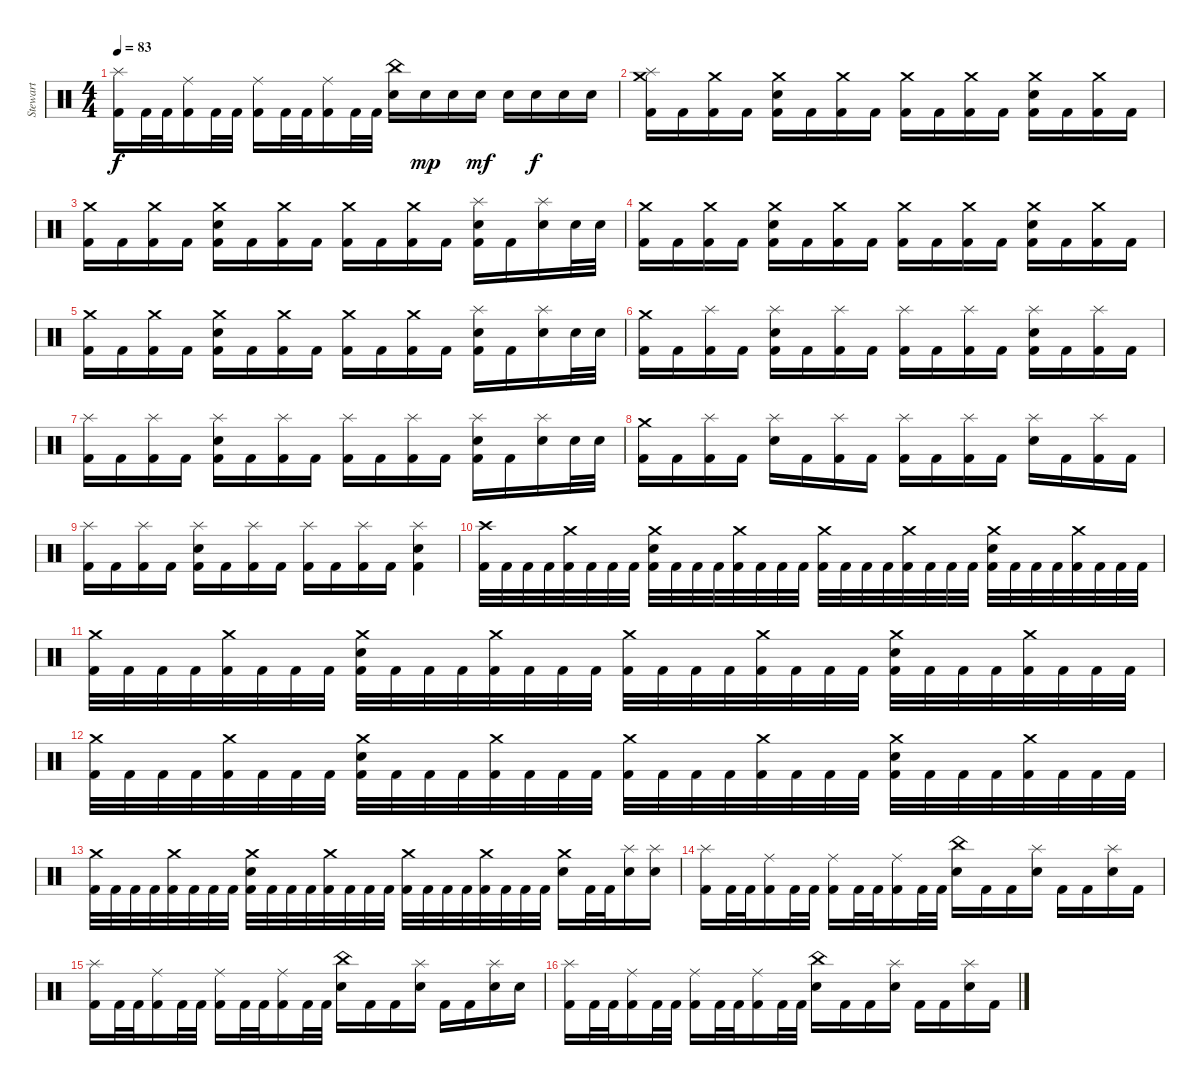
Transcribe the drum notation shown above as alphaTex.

\track ("Stewart" "Stewart") {instrument percussion}
\staff {score}
\articulation defaults
\ts (4 4)
\tempo 83
\clef neutral
\ks c
("Splash (hit)" "Kick (hit) 2").16{dy f} "Kick (hit) 2".32 "Kick (hit) 2".32 ("Ride (middle)" "Kick (hit) 2").16 "Kick (hit) 2".32 "Kick (hit) 2".32 ("Ride (middle)" "Kick (hit) 2").16 "Kick (hit) 2".32 "Kick (hit) 2".32 ("Ride (middle)" "Kick (hit) 2").16 "Kick (hit) 2".32 "Kick (hit) 2".32 ("China (hit)" "Electric Snare (hit)").16 "Electric Snare (hit)".16{dy mp} "Electric Snare (hit)".16 "Electric Snare (hit)".16{dy mf} "Electric Snare (hit)".16 "Electric Snare (hit)".16{dy f} "Electric Snare (hit)".16 "Electric Snare (hit)".16 |
("Crash medium (hit)" "Splash (hit)" "Kick (hit) 2").16 "Kick (hit) 2".16 ("Crash medium (hit)" "Kick (hit) 2").16 "Kick (hit) 2".16 ("Crash medium (hit)" "Electric Snare (hit)" "Kick (hit) 2").16 "Kick (hit) 2".16 ("Crash medium (hit)" "Kick (hit) 2").16 "Kick (hit) 2".16 ("Crash medium (hit)" "Kick (hit) 2").16 "Kick (hit) 2".16 ("Crash medium (hit)" "Kick (hit) 2").16 "Kick (hit) 2".16 ("Crash medium (hit)" "Electric Snare (hit)" "Kick (hit) 2").16 "Kick (hit) 2".16 ("Crash medium (hit)" "Kick (hit) 2").16 "Kick (hit) 2".16 |
("Crash medium (hit)" "Kick (hit) 2").16 "Kick (hit) 2".16 ("Crash medium (hit)" "Kick (hit) 2").16 "Kick (hit) 2".16 ("Crash medium (hit)" "Electric Snare (hit)" "Kick (hit) 2").16 "Kick (hit) 2".16 ("Crash medium (hit)" "Kick (hit) 2").16 "Kick (hit) 2".16 ("Crash medium (hit)" "Kick (hit) 2").16 "Kick (hit) 2".16 ("Crash medium (hit)" "Kick (hit) 2").16 "Kick (hit) 2".16 ("Splash (hit)" "Electric Snare (hit)" "Kick (hit) 2").16 "Kick (hit) 2".16 ("Splash (hit)" "Electric Snare (hit)").16 "Electric Snare (hit)".32 "Electric Snare (hit)".32 |
("Crash medium (hit)" "Kick (hit) 2").16 "Kick (hit) 2".16 ("Crash medium (hit)" "Kick (hit) 2").16 "Kick (hit) 2".16 ("Crash medium (hit)" "Electric Snare (hit)" "Kick (hit) 2").16 "Kick (hit) 2".16 ("Crash medium (hit)" "Kick (hit) 2").16 "Kick (hit) 2".16 ("Crash medium (hit)" "Kick (hit) 2").16 "Kick (hit) 2".16 ("Crash medium (hit)" "Kick (hit) 2").16 "Kick (hit) 2".16 ("Crash medium (hit)" "Electric Snare (hit)" "Kick (hit) 2").16 "Kick (hit) 2".16 ("Crash medium (hit)" "Kick (hit) 2").16 "Kick (hit) 2".16 |
("Crash medium (hit)" "Kick (hit) 2").16 "Kick (hit) 2".16 ("Crash medium (hit)" "Kick (hit) 2").16 "Kick (hit) 2".16 ("Crash medium (hit)" "Electric Snare (hit)" "Kick (hit) 2").16 "Kick (hit) 2".16 ("Crash medium (hit)" "Kick (hit) 2").16 "Kick (hit) 2".16 ("Crash medium (hit)" "Kick (hit) 2").16 "Kick (hit) 2".16 ("Crash medium (hit)" "Kick (hit) 2").16 "Kick (hit) 2".16 ("Splash (hit)" "Electric Snare (hit)" "Kick (hit) 2").16 "Kick (hit) 2".16 ("Splash (hit)" "Electric Snare (hit)").16 "Electric Snare (hit)".32 "Electric Snare (hit)".32 |
("Crash medium (hit)" "Kick (hit) 2").16 "Kick (hit) 2".16 ("Splash (hit)" "Kick (hit) 2").16 "Kick (hit) 2".16 ("Splash (hit)" "Electric Snare (hit)" "Kick (hit) 2").16 "Kick (hit) 2".16 ("Splash (hit)" "Kick (hit) 2").16 "Kick (hit) 2".16 ("Splash (hit)" "Kick (hit) 2").16 "Kick (hit) 2".16 ("Splash (hit)" "Kick (hit) 2").16 "Kick (hit) 2".16 ("Splash (hit)" "Electric Snare (hit)" "Kick (hit) 2").16 "Kick (hit) 2".16 ("Splash (hit)" "Kick (hit) 2").16 "Kick (hit) 2".16 |
("Splash (hit)" "Kick (hit) 2").16 "Kick (hit) 2".16 ("Splash (hit)" "Kick (hit) 2").16 "Kick (hit) 2".16 ("Splash (hit)" "Electric Snare (hit)" "Kick (hit) 2").16 "Kick (hit) 2".16 ("Splash (hit)" "Kick (hit) 2").16 "Kick (hit) 2".16 ("Splash (hit)" "Kick (hit) 2").16 "Kick (hit) 2".16 ("Splash (hit)" "Kick (hit) 2").16 "Kick (hit) 2".16 ("Splash (hit)" "Electric Snare (hit)" "Kick (hit) 2").16 "Kick (hit) 2".16 ("Splash (hit)" "Electric Snare (hit)").16 "Electric Snare (hit)".32 "Electric Snare (hit)".32 |
("Crash medium (hit)" "Kick (hit) 2").16 "Kick (hit) 2".16 ("Splash (hit)" "Kick (hit) 2").16 "Kick (hit) 2".16 ("Splash (hit)" "Electric Snare (hit)").16 "Kick (hit) 2".16 ("Splash (hit)" "Kick (hit) 2").16 "Kick (hit) 2".16 ("Splash (hit)" "Kick (hit) 2").16 "Kick (hit) 2".16 ("Splash (hit)" "Kick (hit) 2").16 "Kick (hit) 2".16 ("Splash (hit)" "Electric Snare (hit)").16 "Kick (hit) 2".16 ("Splash (hit)" "Kick (hit) 2").16 "Kick (hit) 2".16 |
("Splash (hit)" "Kick (hit) 2").16 "Kick (hit) 2".16 ("Splash (hit)" "Kick (hit) 2").16 "Kick (hit) 2".16 ("Splash (hit)" "Electric Snare (hit)" "Kick (hit) 2").16 "Kick (hit) 2".16 ("Splash (hit)" "Kick (hit) 2").16 "Kick (hit) 2".16 ("Splash (hit)" "Kick (hit) 2").16 "Kick (hit) 2".16 ("Splash (hit)" "Kick (hit) 2").16 "Kick (hit) 2".16 ("Splash (hit)" "Electric Snare (hit)" "Kick (hit) 2").4 |
("Crash high (hit)" "Kick (hit) 2").32 "Kick (hit) 2".32 "Kick (hit) 2".32 "Kick (hit) 2".32 ("Crash medium (hit)" "Kick (hit) 2").32 "Kick (hit) 2".32 "Kick (hit) 2".32 "Kick (hit) 2".32 ("Crash medium (hit)" "Electric Snare (hit)" "Kick (hit) 2").32 "Kick (hit) 2".32 "Kick (hit) 2".32 "Kick (hit) 2".32 ("Crash medium (hit)" "Kick (hit) 2").32 "Kick (hit) 2".32 "Kick (hit) 2".32 "Kick (hit) 2".32 ("Crash medium (hit)" "Kick (hit) 2").32 "Kick (hit) 2".32 "Kick (hit) 2".32 "Kick (hit) 2".32 ("Crash medium (hit)" "Kick (hit) 2").32 "Kick (hit) 2".32 "Kick (hit) 2".32 "Kick (hit) 2".32 ("Crash medium (hit)" "Electric Snare (hit)" "Kick (hit) 2").32 "Kick (hit) 2".32 "Kick (hit) 2".32 "Kick (hit) 2".32 ("Crash medium (hit)" "Kick (hit) 2").32 "Kick (hit) 2".32 "Kick (hit) 2".32 "Kick (hit) 2".32 |
("Crash medium (hit)" "Kick (hit) 2").32 "Kick (hit) 2".32 "Kick (hit) 2".32 "Kick (hit) 2".32 ("Crash medium (hit)" "Kick (hit) 2").32 "Kick (hit) 2".32 "Kick (hit) 2".32 "Kick (hit) 2".32 ("Crash medium (hit)" "Electric Snare (hit)" "Kick (hit) 2").32 "Kick (hit) 2".32 "Kick (hit) 2".32 "Kick (hit) 2".32 ("Crash medium (hit)" "Kick (hit) 2").32 "Kick (hit) 2".32 "Kick (hit) 2".32 "Kick (hit) 2".32 ("Crash medium (hit)" "Kick (hit) 2").32 "Kick (hit) 2".32 "Kick (hit) 2".32 "Kick (hit) 2".32 ("Crash medium (hit)" "Kick (hit) 2").32 "Kick (hit) 2".32 "Kick (hit) 2".32 "Kick (hit) 2".32 ("Crash medium (hit)" "Electric Snare (hit)" "Kick (hit) 2").32 "Kick (hit) 2".32 "Kick (hit) 2".32 "Kick (hit) 2".32 ("Crash medium (hit)" "Kick (hit) 2").32 "Kick (hit) 2".32 "Kick (hit) 2".32 "Kick (hit) 2".32 |
("Crash medium (hit)" "Kick (hit) 2").32 "Kick (hit) 2".32 "Kick (hit) 2".32 "Kick (hit) 2".32 ("Crash medium (hit)" "Kick (hit) 2").32 "Kick (hit) 2".32 "Kick (hit) 2".32 "Kick (hit) 2".32 ("Crash medium (hit)" "Electric Snare (hit)" "Kick (hit) 2").32 "Kick (hit) 2".32 "Kick (hit) 2".32 "Kick (hit) 2".32 ("Crash medium (hit)" "Kick (hit) 2").32 "Kick (hit) 2".32 "Kick (hit) 2".32 "Kick (hit) 2".32 ("Crash medium (hit)" "Kick (hit) 2").32 "Kick (hit) 2".32 "Kick (hit) 2".32 "Kick (hit) 2".32 ("Crash medium (hit)" "Kick (hit) 2").32 "Kick (hit) 2".32 "Kick (hit) 2".32 "Kick (hit) 2".32 ("Crash medium (hit)" "Electric Snare (hit)" "Kick (hit) 2").32 "Kick (hit) 2".32 "Kick (hit) 2".32 "Kick (hit) 2".32 ("Crash medium (hit)" "Kick (hit) 2").32 "Kick (hit) 2".32 "Kick (hit) 2".32 "Kick (hit) 2".32 |
("Crash medium (hit)" "Kick (hit) 2").32 "Kick (hit) 2".32 "Kick (hit) 2".32 "Kick (hit) 2".32 ("Crash medium (hit)" "Kick (hit) 2").32 "Kick (hit) 2".32 "Kick (hit) 2".32 "Kick (hit) 2".32 ("Crash medium (hit)" "Electric Snare (hit)" "Kick (hit) 2").32 "Kick (hit) 2".32 "Kick (hit) 2".32 "Kick (hit) 2".32 ("Crash medium (hit)" "Kick (hit) 2").32 "Kick (hit) 2".32 "Kick (hit) 2".32 "Kick (hit) 2".32 ("Crash medium (hit)" "Kick (hit) 2").32 "Kick (hit) 2".32 "Kick (hit) 2".32 "Kick (hit) 2".32 ("Crash medium (hit)" "Kick (hit) 2").32 "Kick (hit) 2".32 "Kick (hit) 2".32 "Kick (hit) 2".32 ("Crash medium (hit)" "Electric Snare (hit)").16 "Kick (hit) 2".32 "Kick (hit) 2".32 ("Splash (hit)" "Electric Snare (hit)").16 ("Splash (hit)" "Electric Snare (hit)").16 |
("Splash (hit)" "Kick (hit) 2").16 "Kick (hit) 2".32 "Kick (hit) 2".32 ("Ride (middle)" "Kick (hit) 2").16 "Kick (hit) 2".32 "Kick (hit) 2".32 ("Ride (middle)" "Kick (hit) 2").16 "Kick (hit) 2".32 "Kick (hit) 2".32 ("Ride (middle)" "Kick (hit) 2").16 "Kick (hit) 2".32 "Kick (hit) 2".32 ("China (hit)" "Electric Snare (hit)").16 "Kick (hit) 2".16 "Kick (hit) 2".16 ("Splash (hit)" "Electric Snare (hit)").16 "Kick (hit) 2".16 "Kick (hit) 2".16 ("Splash (hit)" "Electric Snare (hit)").16 "Kick (hit) 2".16 |
("Splash (hit)" "Kick (hit) 2").16 "Kick (hit) 2".32 "Kick (hit) 2".32 ("Ride (middle)" "Kick (hit) 2").16 "Kick (hit) 2".32 "Kick (hit) 2".32 ("Ride (middle)" "Kick (hit) 2").16 "Kick (hit) 2".32 "Kick (hit) 2".32 ("Ride (middle)" "Kick (hit) 2").16 "Kick (hit) 2".32 "Kick (hit) 2".32 ("China (hit)" "Electric Snare (hit)").16 "Kick (hit) 2".16 "Kick (hit) 2".16 ("Splash (hit)" "Electric Snare (hit)").16 "Kick (hit) 2".16 "Kick (hit) 2".16 ("Splash (hit)" "Electric Snare (hit)").16 "Electric Snare (hit)".16 |
("Splash (hit)" "Kick (hit) 2").16 "Kick (hit) 2".32 "Kick (hit) 2".32 ("Ride (middle)" "Kick (hit) 2").16 "Kick (hit) 2".32 "Kick (hit) 2".32 ("Ride (middle)" "Kick (hit) 2").16 "Kick (hit) 2".32 "Kick (hit) 2".32 ("Ride (middle)" "Kick (hit) 2").16 "Kick (hit) 2".32 "Kick (hit) 2".32 ("China (hit)" "Electric Snare (hit)").16 "Kick (hit) 2".16 "Kick (hit) 2".16 ("Splash (hit)" "Electric Snare (hit)").16 "Kick (hit) 2".16 "Kick (hit) 2".16 ("Splash (hit)" "Electric Snare (hit)").16 "Kick (hit) 2".16
